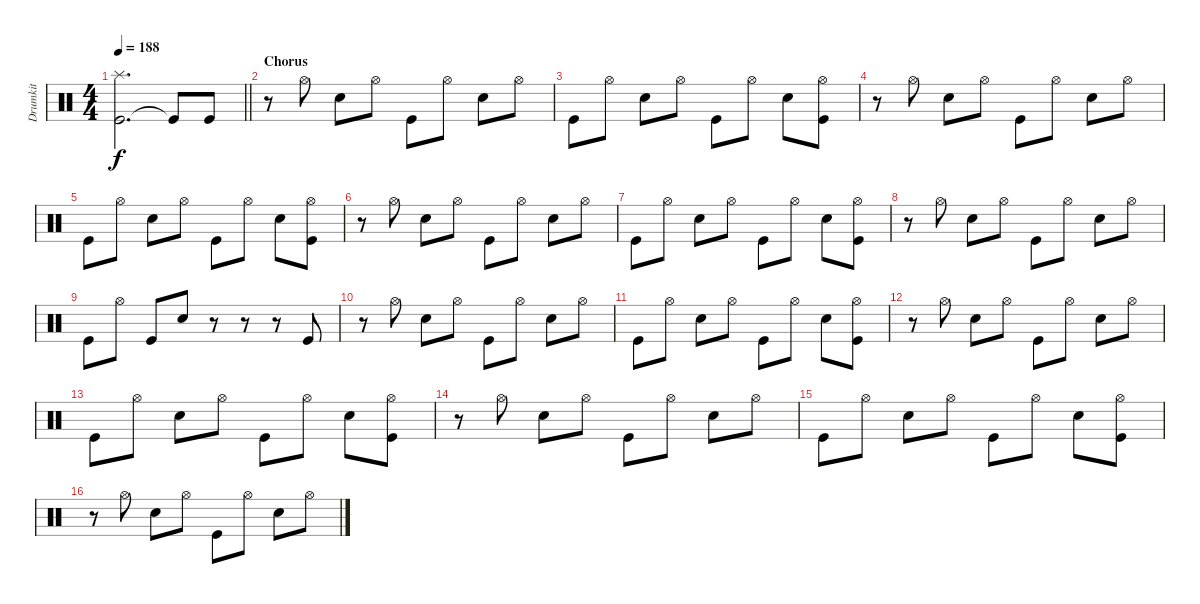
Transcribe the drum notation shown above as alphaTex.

\track ("Drumkit" "Drumkit") {instrument percussion}
\staff {score}
\articulation defaults
\ts (4 4)
\tempo 188
\clef neutral
\barLineRight lightlight
\ks c
("Kick (hit)" "Splash (hit)").2{d dy f} "Kick (hit)"{t}.8 "Kick (hit)".8 |
\section ("" "Chorus")
r.8 "Hi-Hat (open)".8 "Snare (hit) 2".8 "Hi-Hat (open)".8 "Kick (hit)".8 "Hi-Hat (open)".8 "Snare (hit) 2".8 "Hi-Hat (open)".8 |
"Kick (hit)".8 "Hi-Hat (open)".8 "Snare (hit) 2".8 "Hi-Hat (open)".8 "Kick (hit)".8 "Hi-Hat (open)".8 "Snare (hit) 2".8 ("Hi-Hat (open)" "Kick (hit)").8 |
r.8 "Hi-Hat (open)".8 "Snare (hit) 2".8 "Hi-Hat (open)".8 "Kick (hit)".8 "Hi-Hat (open)".8 "Snare (hit) 2".8 "Hi-Hat (open)".8 |
"Kick (hit)".8 "Hi-Hat (open)".8 "Snare (hit) 2".8 "Hi-Hat (open)".8 "Kick (hit)".8 "Hi-Hat (open)".8 "Snare (hit) 2".8 ("Hi-Hat (open)" "Kick (hit)").8 |
r.8 "Hi-Hat (open)".8 "Snare (hit) 2".8 "Hi-Hat (open)".8 "Kick (hit)".8 "Hi-Hat (open)".8 "Snare (hit) 2".8 "Hi-Hat (open)".8 |
"Kick (hit)".8 "Hi-Hat (open)".8 "Snare (hit) 2".8 "Hi-Hat (open)".8 "Kick (hit)".8 "Hi-Hat (open)".8 "Snare (hit) 2".8 ("Hi-Hat (open)" "Kick (hit)").8 |
r.8 "Hi-Hat (open)".8 "Snare (hit) 2".8 "Hi-Hat (open)".8 "Kick (hit)".8 "Hi-Hat (open)".8 "Snare (hit) 2".8 "Hi-Hat (open)".8 |
"Kick (hit)".8 "Hi-Hat (open)".8 "Kick (hit)".8 "Snare (hit) 2".8 r.8 r.8 r.8 "Kick (hit)".8 |
r.8 "Hi-Hat (open)".8 "Snare (hit) 2".8 "Hi-Hat (open)".8 "Kick (hit)".8 "Hi-Hat (open)".8 "Snare (hit) 2".8 "Hi-Hat (open)".8 |
"Kick (hit)".8 "Hi-Hat (open)".8 "Snare (hit) 2".8 "Hi-Hat (open)".8 "Kick (hit)".8 "Hi-Hat (open)".8 "Snare (hit) 2".8 ("Hi-Hat (open)" "Kick (hit)").8 |
r.8 "Hi-Hat (open)".8 "Snare (hit) 2".8 "Hi-Hat (open)".8 "Kick (hit)".8 "Hi-Hat (open)".8 "Snare (hit) 2".8 "Hi-Hat (open)".8 |
"Kick (hit)".8 "Hi-Hat (open)".8 "Snare (hit) 2".8 "Hi-Hat (open)".8 "Kick (hit)".8 "Hi-Hat (open)".8 "Snare (hit) 2".8 ("Hi-Hat (open)" "Kick (hit)").8 |
r.8 "Hi-Hat (open)".8 "Snare (hit) 2".8 "Hi-Hat (open)".8 "Kick (hit)".8 "Hi-Hat (open)".8 "Snare (hit) 2".8 "Hi-Hat (open)".8 |
"Kick (hit)".8 "Hi-Hat (open)".8 "Snare (hit) 2".8 "Hi-Hat (open)".8 "Kick (hit)".8 "Hi-Hat (open)".8 "Snare (hit) 2".8 ("Hi-Hat (open)" "Kick (hit)").8 |
r.8 "Hi-Hat (open)".8 "Snare (hit) 2".8 "Hi-Hat (open)".8 "Kick (hit)".8 "Hi-Hat (open)".8 "Snare (hit) 2".8 "Hi-Hat (open)".8
